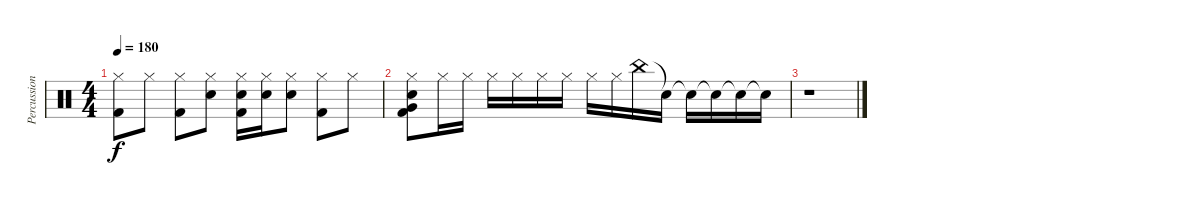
\track ("Percussion" "Percussion") {instrument percussion}
\staff {score}
\articulation defaults
\ts (4 4)
\tempo 180
\clef neutral
\ks c
("Hi-Hat (closed)" "Kick (hit) 2").8{dy f} "Hi-Hat (closed)".8 ("Hi-Hat (closed)" "Kick (hit) 2").8 ("Hi-Hat (closed)" "Electric Snare (hit)").8 ("Hi-Hat (closed)" "Electric Snare (hit)" "Kick (hit) 2").16 ("Hi-Hat (closed)" "Electric Snare (hit)").16 ("Hi-Hat (closed)" "Electric Snare (hit)").8 ("Hi-Hat (closed)" "Kick (hit) 2").8 "Hi-Hat (closed)".8 |
("Hi-Hat (closed)" "Very Low Tom (hit)" "Electric Snare (hit)" "Kick (hit) 2").8 "Hi-Hat (closed)".16 "Hi-Hat (closed)".16 "Hi-Hat (closed)".16 "Hi-Hat (closed)".16 "Hi-Hat (closed)".16 "Hi-Hat (closed)".16 "Hi-Hat (closed)".16 "Hi-Hat (closed)".16 "China (hit)".16 "Snare (hit)"{t}.16 "Snare (hit)"{t}.16 "Snare (hit)"{t}.16 "Snare (hit)"{t}.16 "Snare (hit)"{t}.16 |
r.1
